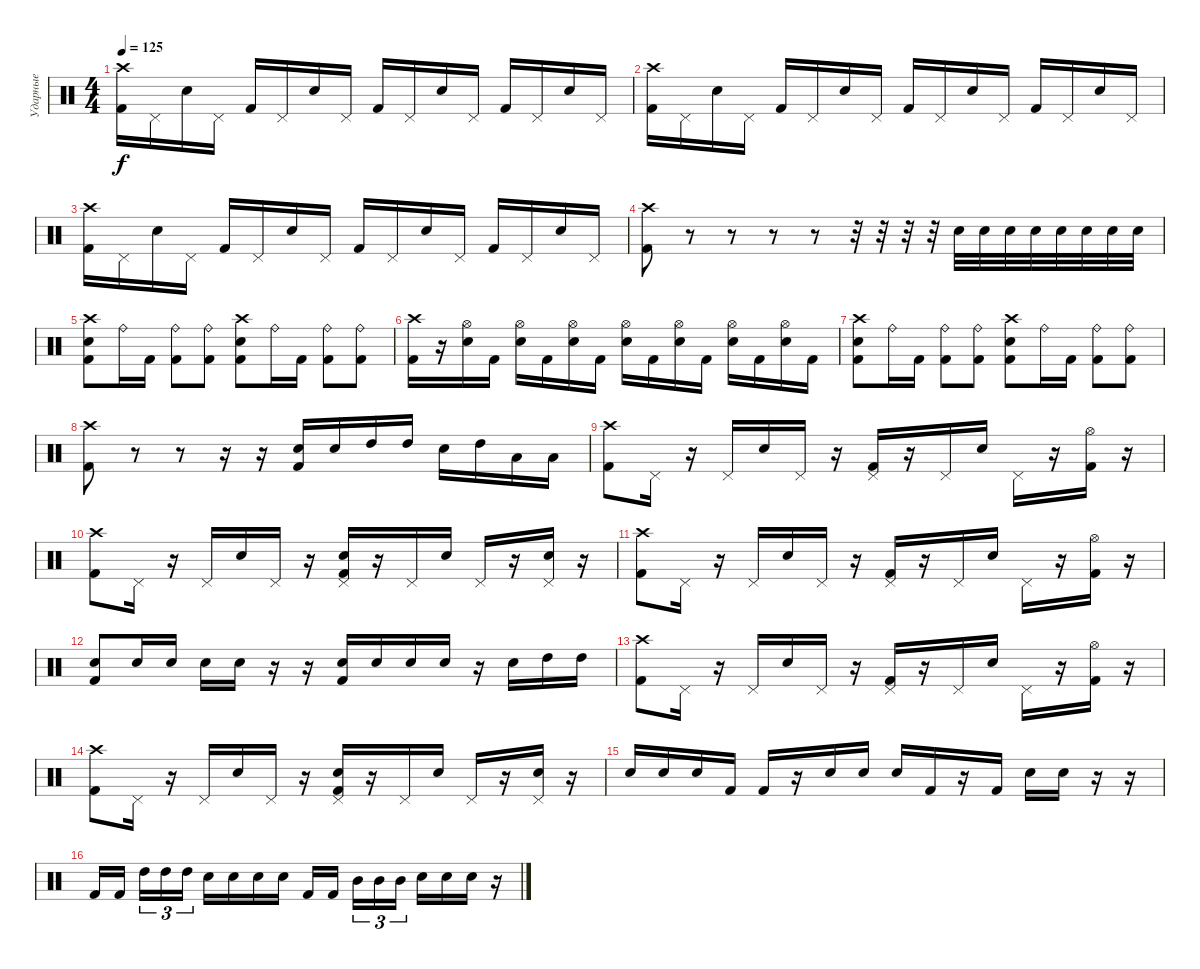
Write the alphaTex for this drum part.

\track ("Ударные" "Ударные") {instrument percussion}
\staff {score}
\articulation defaults
\ts (4 4)
\tempo 125
\clef neutral
\ks c
("Crash high (hit)" "Kick (hit) 2").16{dy f} "Pedal Hi-Hat (hit)".16 "Electric Snare (hit)".16 "Pedal Hi-Hat (hit)".16 "Kick (hit) 2".16 "Pedal Hi-Hat (hit)".16 "Electric Snare (hit)".16 "Pedal Hi-Hat (hit)".16 "Kick (hit) 2".16 "Pedal Hi-Hat (hit)".16 "Electric Snare (hit)".16 "Pedal Hi-Hat (hit)".16 "Kick (hit) 2".16 "Pedal Hi-Hat (hit)".16 "Electric Snare (hit)".16 "Pedal Hi-Hat (hit)".16 |
("Crash high (hit)" "Kick (hit) 2").16 "Pedal Hi-Hat (hit)".16 "Electric Snare (hit)".16 "Pedal Hi-Hat (hit)".16 "Kick (hit) 2".16 "Pedal Hi-Hat (hit)".16 "Electric Snare (hit)".16 "Pedal Hi-Hat (hit)".16 "Kick (hit) 2".16 "Pedal Hi-Hat (hit)".16 "Electric Snare (hit)".16 "Pedal Hi-Hat (hit)".16 "Kick (hit) 2".16 "Pedal Hi-Hat (hit)".16 "Electric Snare (hit)".16 "Pedal Hi-Hat (hit)".16 |
("Crash high (hit)" "Kick (hit) 2").16 "Pedal Hi-Hat (hit)".16 "Electric Snare (hit)".16 "Pedal Hi-Hat (hit)".16 "Kick (hit) 2".16 "Pedal Hi-Hat (hit)".16 "Electric Snare (hit)".16 "Pedal Hi-Hat (hit)".16 "Kick (hit) 2".16 "Pedal Hi-Hat (hit)".16 "Electric Snare (hit)".16 "Pedal Hi-Hat (hit)".16 "Kick (hit) 2".16 "Pedal Hi-Hat (hit)".16 "Electric Snare (hit)".16 "Pedal Hi-Hat (hit)".16 |
("Crash high (hit)" "Kick (hit) 2").8 r.8 r.8 r.8 r.8 r.32 r.32 r.32 r.32 "Electric Snare (hit)".32 "Electric Snare (hit)".32 "Electric Snare (hit)".32 "Electric Snare (hit)".32 "Electric Snare (hit)".32 "Electric Snare (hit)".32 "Electric Snare (hit)".32 "Electric Snare (hit)".32 |
("Crash high (hit)" "Electric Snare (hit)" "Kick (hit) 2").8 "Ride (bell)".16 "Kick (hit) 2".16 ("Ride (bell)" "Kick (hit) 2").8 ("Ride (bell)" "Kick (hit) 2").8 ("Crash high (hit)" "Electric Snare (hit)" "Kick (hit) 2").8 "Ride (bell)".16 "Kick (hit) 2".16 ("Ride (bell)" "Kick (hit) 2").8 ("Ride (bell)" "Kick (hit) 2").8 |
("Crash high (hit)" "Kick (hit) 2").16 r.16 ("Hi-Hat (open)" "Electric Snare (hit)").16 "Kick (hit) 2".16 ("Hi-Hat (open)" "Electric Snare (hit)").16 "Kick (hit) 2".16 ("Hi-Hat (open)" "Electric Snare (hit)").16 "Kick (hit) 2".16 ("Hi-Hat (open)" "Electric Snare (hit)").16 "Kick (hit) 2".16 ("Hi-Hat (open)" "Electric Snare (hit)").16 "Kick (hit) 2".16 ("Hi-Hat (open)" "Electric Snare (hit)").16 "Kick (hit) 2".16 ("Hi-Hat (open)" "Electric Snare (hit)").16 "Kick (hit) 2".16 |
("Crash high (hit)" "Electric Snare (hit)" "Kick (hit) 2").8 "Ride (bell)".16 "Kick (hit) 2".16 ("Ride (bell)" "Kick (hit) 2").8 ("Ride (bell)" "Kick (hit) 2").8 ("Crash high (hit)" "Electric Snare (hit)" "Kick (hit) 2").8 "Ride (bell)".16 "Kick (hit) 2".16 ("Ride (bell)" "Kick (hit) 2").8 ("Ride (bell)" "Kick (hit) 2").8 |
("Crash high (hit)" "Kick (hit) 2").8 r.8 r.8 r.16 r.16 ("Electric Snare (hit)" "Kick (hit) 2").16 "Electric Snare (hit)".16 "High Tom (hit)".16 "High Tom (hit)".16 "Electric Snare (hit)".16 "High Tom (hit)".16 "Low Tom (hit)".16 "Low Tom (hit)".16 |
("Crash high (hit)" "Kick (hit) 2").8 "Pedal Hi-Hat (hit)".16 r.16 "Pedal Hi-Hat (hit)".16 "Electric Snare (hit)".16 "Pedal Hi-Hat (hit)".16 r.16 ("Pedal Hi-Hat (hit)" "Kick (hit) 2").16 r.16 "Pedal Hi-Hat (hit)".16 "Electric Snare (hit)".16 "Pedal Hi-Hat (hit)".16 r.16 ("Hi-Hat (open)" "Kick (hit) 2").16 r.16 |
("Crash high (hit)" "Kick (hit) 2").8 "Pedal Hi-Hat (hit)".16 r.16 "Pedal Hi-Hat (hit)".16 "Electric Snare (hit)".16 "Pedal Hi-Hat (hit)".16 r.16 ("Pedal Hi-Hat (hit)" "Electric Snare (hit)" "Kick (hit) 2").16 r.16 "Pedal Hi-Hat (hit)".16 "Electric Snare (hit)".16 "Pedal Hi-Hat (hit)".16 r.16 ("Pedal Hi-Hat (hit)" "Electric Snare (hit)").16 r.16 |
("Crash high (hit)" "Kick (hit) 2").8 "Pedal Hi-Hat (hit)".16 r.16 "Pedal Hi-Hat (hit)".16 "Electric Snare (hit)".16 "Pedal Hi-Hat (hit)".16 r.16 ("Pedal Hi-Hat (hit)" "Kick (hit) 2").16 r.16 "Pedal Hi-Hat (hit)".16 "Electric Snare (hit)".16 "Pedal Hi-Hat (hit)".16 r.16 ("Hi-Hat (open)" "Kick (hit) 2").16 r.16 |
("Electric Snare (hit)" "Kick (hit) 2").8 "Electric Snare (hit)".16 "Electric Snare (hit)".16 "Electric Snare (hit)".16 "Electric Snare (hit)".16 r.16 r.16 ("Electric Snare (hit)" "Kick (hit) 2").16 "Electric Snare (hit)".16 "Electric Snare (hit)".16 "Electric Snare (hit)".16 r.16 "Electric Snare (hit)".16 "High Tom (hit)".16 "High Tom (hit)".16 |
("Crash high (hit)" "Kick (hit) 2").8 "Pedal Hi-Hat (hit)".16 r.16 "Pedal Hi-Hat (hit)".16 "Electric Snare (hit)".16 "Pedal Hi-Hat (hit)".16 r.16 ("Pedal Hi-Hat (hit)" "Kick (hit) 2").16 r.16 "Pedal Hi-Hat (hit)".16 "Electric Snare (hit)".16 "Pedal Hi-Hat (hit)".16 r.16 ("Hi-Hat (open)" "Kick (hit) 2").16 r.16 |
("Crash high (hit)" "Kick (hit) 2").8 "Pedal Hi-Hat (hit)".16 r.16 "Pedal Hi-Hat (hit)".16 "Electric Snare (hit)".16 "Pedal Hi-Hat (hit)".16 r.16 ("Pedal Hi-Hat (hit)" "Electric Snare (hit)" "Kick (hit) 2").16 r.16 "Pedal Hi-Hat (hit)".16 "Electric Snare (hit)".16 "Pedal Hi-Hat (hit)".16 r.16 ("Pedal Hi-Hat (hit)" "Electric Snare (hit)").16 r.16 |
"Electric Snare (hit)".16 "Electric Snare (hit)".16 "Electric Snare (hit)".16 "Kick (hit) 2".16 "Kick (hit) 2".16 r.16 "Electric Snare (hit)".16 "Electric Snare (hit)".16 "Electric Snare (hit)".16 "Kick (hit) 2".16 r.16 "Kick (hit) 2".16 "Electric Snare (hit)".16 "Electric Snare (hit)".16 r.16 r.16 |
"Kick (hit) 2".16 "Kick (hit) 2".16{beam splitsecondary} "High Tom (hit)".16{tu (3 2)} "High Tom (hit)".16{tu (3 2)} "High Tom (hit)".16{tu (3 2)} "Electric Snare (hit)".16 "Electric Snare (hit)".16 "Electric Snare (hit)".16 "Electric Snare (hit)".16 "Kick (hit) 2".16 "Kick (hit) 2".16{beam splitsecondary} "Mid Tom (hit)".16{tu (3 2)} "Mid Tom (hit)".16{tu (3 2)} "Mid Tom (hit)".16{tu (3 2)} "Electric Snare (hit)".16 "Electric Snare (hit)".16 "Electric Snare (hit)".16 r.16
